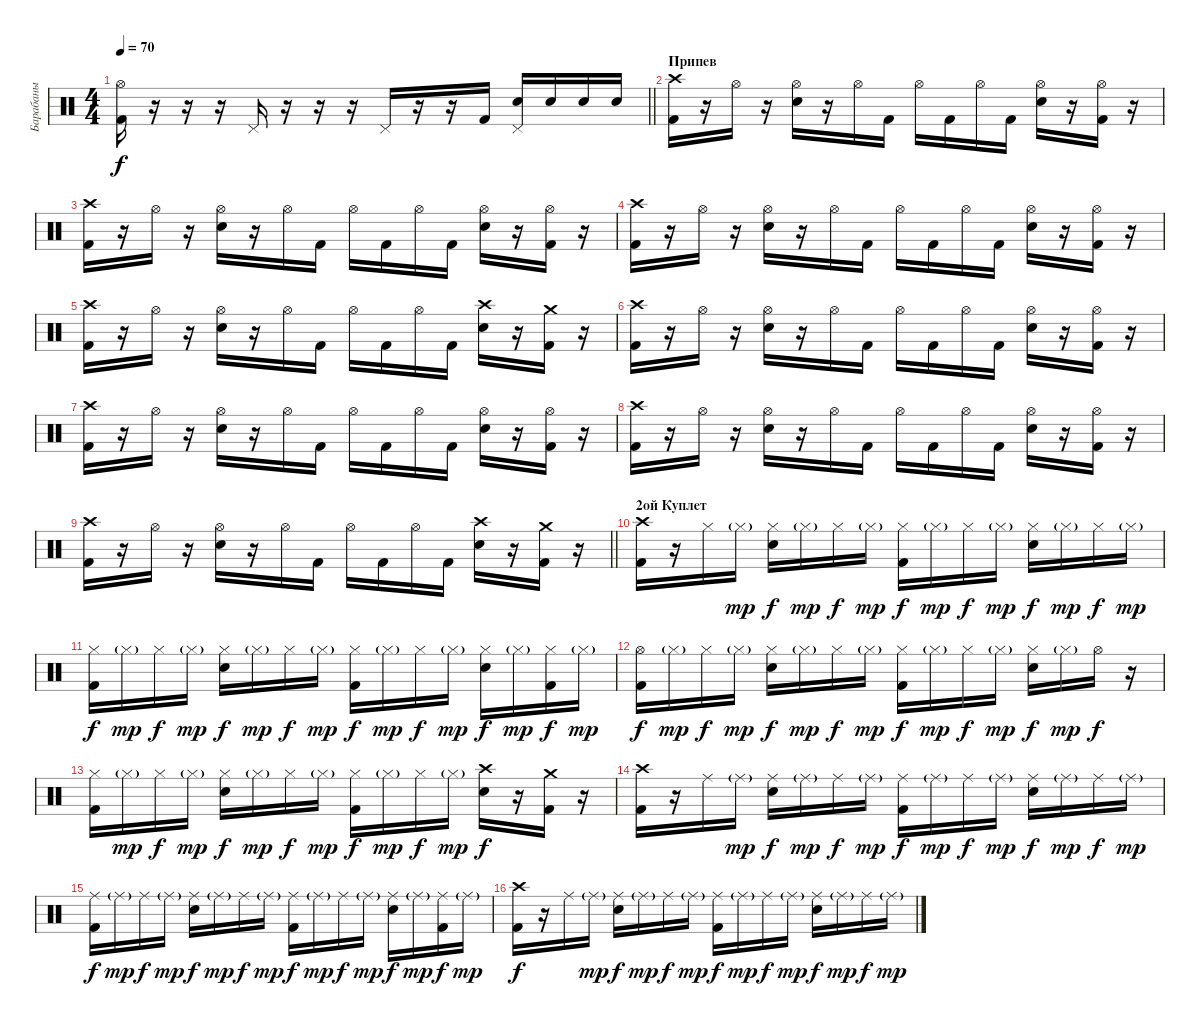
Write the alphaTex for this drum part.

\track ("Барабаны" "Барабаны") {instrument percussion}
\staff {score}
\articulation defaults
\ts (4 4)
\tempo 70
\clef neutral
\barLineRight lightlight
\ks c
("Hi-Hat (open)" "Kick (hit) 2").16{dy f} r.16 r.16 r.16 "Pedal Hi-Hat (hit)".16 r.16 r.16 r.16 "Pedal Hi-Hat (hit)".16 r.16 r.16 "Kick (hit) 2".16 ("Pedal Hi-Hat (hit)" "Snare (hit) 2").16 "Snare (hit) 2".16 "Snare (hit) 2".16 "Snare (hit) 2".16 |
\section ("" "Припев")
("Crash high (hit)" "Kick (hit) 2").16 r.16 "Hi-Hat (open)".16 r.16 ("Hi-Hat (open)" "Snare (hit) 2").16 r.16 "Hi-Hat (open)".16 "Kick (hit) 2".16 "Hi-Hat (open)".16 "Kick (hit) 2".16 "Hi-Hat (open)".16 "Kick (hit) 2".16 ("Hi-Hat (open)" "Snare (hit) 2").16 r.16 ("Hi-Hat (open)" "Kick (hit) 2").16 r.16 |
("Crash high (hit)" "Kick (hit) 2").16 r.16 "Hi-Hat (open)".16 r.16 ("Hi-Hat (open)" "Snare (hit) 2").16 r.16 "Hi-Hat (open)".16 "Kick (hit) 2".16 "Hi-Hat (open)".16 "Kick (hit) 2".16 "Hi-Hat (open)".16 "Kick (hit) 2".16 ("Hi-Hat (open)" "Snare (hit) 2").16 r.16 ("Hi-Hat (open)" "Kick (hit) 2").16 r.16 |
("Crash high (hit)" "Kick (hit) 2").16 r.16 "Hi-Hat (open)".16 r.16 ("Hi-Hat (open)" "Snare (hit) 2").16 r.16 "Hi-Hat (open)".16 "Kick (hit) 2".16 "Hi-Hat (open)".16 "Kick (hit) 2".16 "Hi-Hat (open)".16 "Kick (hit) 2".16 ("Hi-Hat (open)" "Snare (hit) 2").16 r.16 ("Hi-Hat (open)" "Kick (hit) 2").16 r.16 |
("Crash high (hit)" "Kick (hit) 2").16 r.16 "Hi-Hat (open)".16 r.16 ("Hi-Hat (open)" "Snare (hit) 2").16 r.16 "Hi-Hat (open)".16 "Kick (hit) 2".16 "Hi-Hat (open)".16 "Kick (hit) 2".16 "Hi-Hat (open)".16 "Kick (hit) 2".16 ("Crash high (hit)" "Snare (hit) 2").16 r.16 ("Crash medium (hit)" "Kick (hit) 2").16 r.16 |
("Crash high (hit)" "Kick (hit) 2").16 r.16 "Hi-Hat (open)".16 r.16 ("Hi-Hat (open)" "Snare (hit) 2").16 r.16 "Hi-Hat (open)".16 "Kick (hit) 2".16 "Hi-Hat (open)".16 "Kick (hit) 2".16 "Hi-Hat (open)".16 "Kick (hit) 2".16 ("Hi-Hat (open)" "Snare (hit) 2").16 r.16 ("Hi-Hat (open)" "Kick (hit) 2").16 r.16 |
("Crash high (hit)" "Kick (hit) 2").16 r.16 "Hi-Hat (open)".16 r.16 ("Hi-Hat (open)" "Snare (hit) 2").16 r.16 "Hi-Hat (open)".16 "Kick (hit) 2".16 "Hi-Hat (open)".16 "Kick (hit) 2".16 "Hi-Hat (open)".16 "Kick (hit) 2".16 ("Hi-Hat (open)" "Snare (hit) 2").16 r.16 ("Hi-Hat (open)" "Kick (hit) 2").16 r.16 |
("Crash high (hit)" "Kick (hit) 2").16 r.16 "Hi-Hat (open)".16 r.16 ("Hi-Hat (open)" "Snare (hit) 2").16 r.16 "Hi-Hat (open)".16 "Kick (hit) 2".16 "Hi-Hat (open)".16 "Kick (hit) 2".16 "Hi-Hat (open)".16 "Kick (hit) 2".16 ("Hi-Hat (open)" "Snare (hit) 2").16 r.16 ("Hi-Hat (open)" "Kick (hit) 2").16 r.16 |
\barLineRight lightlight
("Crash high (hit)" "Kick (hit) 2").16 r.16 "Hi-Hat (open)".16 r.16 ("Hi-Hat (open)" "Snare (hit) 2").16 r.16 "Hi-Hat (open)".16 "Kick (hit) 2".16 "Hi-Hat (open)".16 "Kick (hit) 2".16 "Hi-Hat (open)".16 "Kick (hit) 2".16 ("Crash high (hit)" "Snare (hit) 2").16 r.16 ("Crash medium (hit)" "Kick (hit) 2").16 r.16 |
\section ("" "2ой Куплет")
("Crash high (hit)" "Kick (hit) 2").16 r.16 "Hi-Hat (closed)".16 "Hi-Hat (closed)"{g}.16{dy mp} ("Hi-Hat (closed)" "Snare (hit) 2").16{dy f} "Hi-Hat (closed)"{g}.16{dy mp} "Hi-Hat (closed)".16{dy f} "Hi-Hat (closed)"{g}.16{dy mp} ("Hi-Hat (closed)" "Kick (hit) 2").16{dy f} "Hi-Hat (closed)"{g}.16{dy mp} "Hi-Hat (closed)".16{dy f} "Hi-Hat (closed)"{g}.16{dy mp} ("Hi-Hat (closed)" "Snare (hit) 2").16{dy f} "Hi-Hat (closed)"{g}.16{dy mp} "Hi-Hat (closed)".16{dy f} "Hi-Hat (closed)"{g}.16{dy mp} |
("Hi-Hat (closed)" "Kick (hit) 2").16{dy f} "Hi-Hat (closed)"{g}.16{dy mp} "Hi-Hat (closed)".16{dy f} "Hi-Hat (closed)"{g}.16{dy mp} ("Hi-Hat (closed)" "Snare (hit) 2").16{dy f} "Hi-Hat (closed)"{g}.16{dy mp} "Hi-Hat (closed)".16{dy f} "Hi-Hat (closed)"{g}.16{dy mp} ("Hi-Hat (closed)" "Kick (hit) 2").16{dy f} "Hi-Hat (closed)"{g}.16{dy mp} "Hi-Hat (closed)".16{dy f} "Hi-Hat (closed)"{g}.16{dy mp} ("Hi-Hat (closed)" "Snare (hit) 2").16{dy f} "Hi-Hat (closed)"{g}.16{dy mp} ("Hi-Hat (closed)" "Kick (hit) 2").16{dy f} "Hi-Hat (closed)"{g}.16{dy mp} |
("Hi-Hat (open)" "Kick (hit) 2").16{dy f} "Hi-Hat (closed)"{g}.16{dy mp} "Hi-Hat (closed)".16{dy f} "Hi-Hat (closed)"{g}.16{dy mp} ("Hi-Hat (closed)" "Snare (hit) 2").16{dy f} "Hi-Hat (closed)"{g}.16{dy mp} "Hi-Hat (closed)".16{dy f} "Hi-Hat (closed)"{g}.16{dy mp} ("Hi-Hat (closed)" "Kick (hit) 2").16{dy f} "Hi-Hat (closed)"{g}.16{dy mp} "Hi-Hat (closed)".16{dy f} "Hi-Hat (closed)"{g}.16{dy mp} ("Hi-Hat (closed)" "Snare (hit) 2").16{dy f} "Hi-Hat (closed)"{g}.16{dy mp} "Hi-Hat (open)".16{dy f} r.16 |
("Hi-Hat (closed)" "Kick (hit) 2").16 "Hi-Hat (closed)"{g}.16{dy mp} "Hi-Hat (closed)".16{dy f} "Hi-Hat (closed)"{g}.16{dy mp} ("Hi-Hat (closed)" "Snare (hit) 2").16{dy f} "Hi-Hat (closed)"{g}.16{dy mp} "Hi-Hat (closed)".16{dy f} "Hi-Hat (closed)"{g}.16{dy mp} ("Hi-Hat (closed)" "Kick (hit) 2").16{dy f} "Hi-Hat (closed)"{g}.16{dy mp} "Hi-Hat (closed)".16{dy f} "Hi-Hat (closed)"{g}.16{dy mp} ("Crash high (hit)" "Snare (hit) 2").16{dy f} r.16 ("Crash medium (hit)" "Kick (hit) 2").16 r.16 |
("Crash high (hit)" "Kick (hit) 2").16 r.16 "Ride (middle)".16 "Ride (middle)"{g}.16{dy mp} ("Ride (middle)" "Snare (hit) 2").16{dy f} "Ride (middle)"{g}.16{dy mp} "Ride (middle)".16{dy f} "Ride (middle)"{g}.16{dy mp} ("Ride (middle)" "Kick (hit) 2").16{dy f} "Ride (middle)"{g}.16{dy mp} "Ride (middle)".16{dy f} "Ride (middle)"{g}.16{dy mp} ("Ride (middle)" "Snare (hit) 2").16{dy f} "Ride (middle)"{g}.16{dy mp} "Ride (middle)".16{dy f} "Ride (middle)"{g}.16{dy mp} |
("Ride (middle)" "Kick (hit) 2").16{dy f} "Ride (middle)"{g}.16{dy mp} "Ride (middle)".16{dy f} "Ride (middle)"{g}.16{dy mp} ("Ride (middle)" "Snare (hit) 2").16{dy f} "Ride (middle)"{g}.16{dy mp} "Ride (middle)".16{dy f} "Ride (middle)"{g}.16{dy mp} ("Ride (middle)" "Kick (hit) 2").16{dy f} "Ride (middle)"{g}.16{dy mp} "Ride (middle)".16{dy f} "Ride (middle)"{g}.16{dy mp} ("Ride (middle)" "Snare (hit) 2").16{dy f} "Ride (middle)"{g}.16{dy mp} ("Ride (middle)" "Kick (hit) 2").16{dy f} "Ride (middle)"{g}.16{dy mp} |
("Crash high (hit)" "Kick (hit) 2").16{dy f} r.16 "Ride (middle)".16 "Ride (middle)"{g}.16{dy mp} ("Ride (middle)" "Snare (hit) 2").16{dy f} "Ride (middle)"{g}.16{dy mp} "Ride (middle)".16{dy f} "Ride (middle)"{g}.16{dy mp} ("Ride (middle)" "Kick (hit) 2").16{dy f} "Ride (middle)"{g}.16{dy mp} "Ride (middle)".16{dy f} "Ride (middle)"{g}.16{dy mp} ("Ride (middle)" "Snare (hit) 2").16{dy f} "Ride (middle)"{g}.16{dy mp} "Ride (middle)".16{dy f} "Ride (middle)"{g}.16{dy mp}
